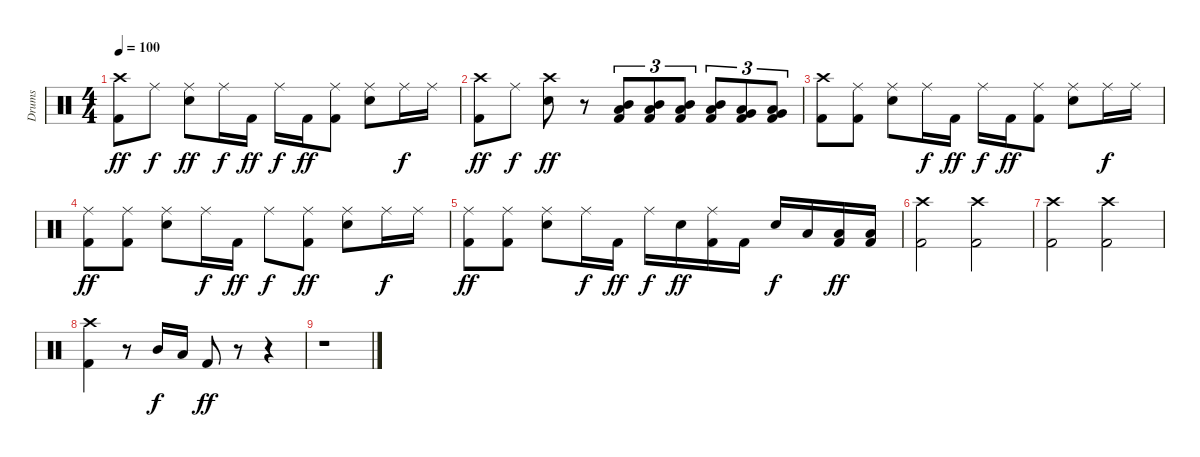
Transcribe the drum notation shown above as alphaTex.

\track ("Drums" "Drums") {instrument percussion}
\staff {score}
\articulation defaults
\ts (4 4)
\tempo 100
\clef neutral
\ks c
("Crash high (hit)" "Kick (hit) 2").8{dy ff} "Ride (middle)".8{dy f} ("Ride (middle)" "Snare (hit) 2").8{dy ff} "Ride (middle)".16{dy f} "Kick (hit) 2".16{dy ff} "Ride (middle)".16{dy f} "Kick (hit) 2".16{dy ff} ("Ride (middle)" "Kick (hit) 2").8 ("Ride (middle)" "Snare (hit) 2").8 "Ride (middle)".16{dy f} "Ride (middle)".16 |
("Crash high (hit)" "Kick (hit) 2").8{dy ff} "Ride (middle)".8{dy f} ("Crash high (hit)" "Snare (hit) 2").8{dy ff} r.8 ("Mid Tom (hit)" "Low Floor Tom (hit)" "Kick (hit) 2").8{tu (3 2)} ("Mid Tom (hit)" "Low Floor Tom (hit)" "Kick (hit) 2").8{tu (3 2)} ("Mid Tom (hit)" "Low Floor Tom (hit)" "Kick (hit) 2").8{tu (3 2)} ("Mid Tom (hit)" "Low Floor Tom (hit)" "Kick (hit) 2").8{tu (3 2)} ("Very Low Tom (hit)" "Low Floor Tom (hit)" "Kick (hit) 2").8{tu (3 2)} ("Very Low Tom (hit)" "Low Floor Tom (hit)" "Kick (hit) 2").8{tu (3 2)} |
("Crash high (hit)" "Kick (hit) 2").8 ("Ride (middle)" "Kick (hit) 2").8 ("Ride (middle)" "Snare (hit) 2").8 "Ride (middle)".16{dy f} "Kick (hit) 2".16{dy ff} "Ride (middle)".16{dy f} "Kick (hit) 2".16{dy ff} ("Ride (middle)" "Kick (hit) 2").8 ("Ride (middle)" "Snare (hit) 2").8 "Ride (middle)".16{dy f} "Ride (middle)".16 |
("Ride (middle)" "Kick (hit) 2").8{dy ff} ("Ride (middle)" "Kick (hit) 2").8 ("Ride (middle)" "Snare (hit) 2").8 "Ride (middle)".16{dy f} "Kick (hit) 2".16{dy ff} "Ride (middle)".8{dy f} ("Ride (middle)" "Kick (hit) 2").8{dy ff} ("Ride (middle)" "Snare (hit) 2").8 "Ride (middle)".16{dy f} "Ride (middle)".16 |
("Ride (middle)" "Kick (hit) 2").8{dy ff} ("Ride (middle)" "Kick (hit) 2").8 ("Ride (middle)" "Snare (hit) 2").8 "Ride (middle)".16{dy f} "Kick (hit) 2".16{dy ff} "Ride (middle)".16{dy f} "Snare (hit) 2".16{dy ff} ("Ride (middle)" "Kick (hit) 2").16 "Kick (hit) 2".16 "Snare (hit) 2".16{dy f} "Low Floor Tom (hit)".16 ("Low Floor Tom (hit)" "Kick (hit) 2").16{dy ff} ("Low Floor Tom (hit)" "Kick (hit) 2").16 |
("Crash high (hit)" "Kick (hit) 2").2 ("Crash high (hit)" "Kick (hit) 2").2 |
("Crash high (hit)" "Kick (hit) 2").2 ("Crash high (hit)" "Kick (hit) 2").2 |
("Crash high (hit)" "Kick (hit) 2").4 r.8 "Mid Tom (hit)".16{dy f} "Low Floor Tom (hit)".16 "Kick (hit) 2".8{dy ff} r.8 r.4 |
r.1
